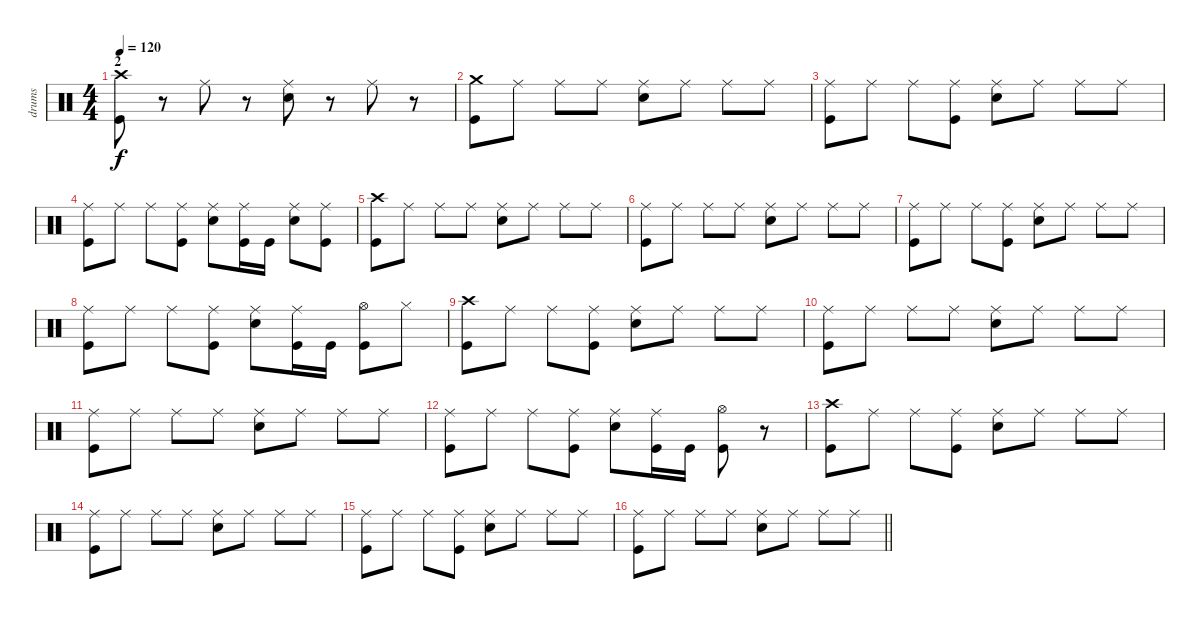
\track ("drums" "drums") {instrument percussion}
\staff {score}
\articulation defaults
\ts (4 4)
\section ("" "2")
\tempo 120
\clef neutral
\ks c
("Crash high (hit)" "Kick (hit)").8{dy f} r.8 "Ride (middle)".8 r.8 ("Ride (middle)" "Electric Snare (hit)").8 r.8 "Ride (middle)".8 r.8 |
("Crash medium (hit)" "Kick (hit)").8 "Ride (middle)".8 "Ride (middle)".8 "Ride (middle)".8 ("Ride (middle)" "Electric Snare (hit)").8 "Ride (middle)".8 "Ride (middle)".8 "Ride (middle)".8 |
("Ride (middle)" "Kick (hit)").8 "Ride (middle)".8 "Ride (middle)".8 ("Ride (middle)" "Kick (hit)").8 ("Ride (middle)" "Electric Snare (hit)").8 "Ride (middle)".8 "Ride (middle)".8 "Ride (middle)".8 |
("Ride (middle)" "Kick (hit)").8 "Ride (middle)".8 "Ride (middle)".8 ("Ride (middle)" "Kick (hit)").8 ("Ride (middle)" "Electric Snare (hit)").8 ("Ride (middle)" "Kick (hit)").16 "Kick (hit)".16 ("Ride (middle)" "Electric Snare (hit)").8 ("Ride (middle)" "Kick (hit)").8 |
("Crash high (hit)" "Kick (hit)").8 "Ride (middle)".8 "Ride (middle)".8 "Ride (middle)".8 ("Ride (middle)" "Electric Snare (hit)").8 "Ride (middle)".8 "Ride (middle)".8 "Ride (middle)".8 |
("Ride (middle)" "Kick (hit)").8 "Ride (middle)".8 "Ride (middle)".8 "Ride (middle)".8 ("Ride (middle)" "Electric Snare (hit)").8 "Ride (middle)".8 "Ride (middle)".8 "Ride (middle)".8 |
("Ride (middle)" "Kick (hit)").8 "Ride (middle)".8 "Ride (middle)".8 ("Ride (middle)" "Kick (hit)").8 ("Ride (middle)" "Electric Snare (hit)").8 "Ride (middle)".8 "Ride (middle)".8 "Ride (middle)".8 |
("Ride (middle)" "Kick (hit)").8 "Ride (middle)".8 "Ride (middle)".8 ("Ride (middle)" "Kick (hit)").8 ("Ride (middle)" "Electric Snare (hit)").8 ("Ride (middle)" "Kick (hit)").16 "Kick (hit)".16 ("Hi-Hat (open)" "Kick (hit)").8 "Hi-Hat (closed)".8 |
("Crash high (hit)" "Kick (hit)").8 "Ride (middle)".8 "Ride (middle)".8 ("Ride (middle)" "Kick (hit)").8 ("Ride (middle)" "Electric Snare (hit)").8 "Ride (middle)".8 "Ride (middle)".8 "Ride (middle)".8 |
("Ride (middle)" "Kick (hit)").8 "Ride (middle)".8 "Ride (middle)".8 "Ride (middle)".8 ("Ride (middle)" "Electric Snare (hit)").8 "Ride (middle)".8 "Ride (middle)".8 "Ride (middle)".8 |
("Ride (middle)" "Kick (hit)").8 "Ride (middle)".8 "Ride (middle)".8 "Ride (middle)".8 ("Ride (middle)" "Electric Snare (hit)").8 "Ride (middle)".8 "Ride (middle)".8 "Ride (middle)".8 |
("Ride (middle)" "Kick (hit)").8 "Ride (middle)".8 "Ride (middle)".8 ("Ride (middle)" "Kick (hit)").8 ("Ride (middle)" "Electric Snare (hit)").8 ("Ride (middle)" "Kick (hit)").16 "Kick (hit)".16 ("Hi-Hat (open)" "Kick (hit)").8 r.8 |
("Crash high (hit)" "Kick (hit)").8 "Ride (middle)".8 "Ride (middle)".8 ("Ride (middle)" "Kick (hit)").8 ("Ride (middle)" "Electric Snare (hit)").8 "Ride (middle)".8 "Ride (middle)".8 "Ride (middle)".8 |
("Ride (middle)" "Kick (hit)").8 "Ride (middle)".8 "Ride (middle)".8 "Ride (middle)".8 ("Ride (middle)" "Electric Snare (hit)").8 "Ride (middle)".8 "Ride (middle)".8 "Ride (middle)".8 |
("Ride (middle)" "Kick (hit)").8 "Ride (middle)".8 "Ride (middle)".8 ("Ride (middle)" "Kick (hit)").8 ("Ride (middle)" "Electric Snare (hit)").8 "Ride (middle)".8 "Ride (middle)".8 "Ride (middle)".8 |
\barLineRight lightlight
("Ride (middle)" "Kick (hit)").8 "Ride (middle)".8 "Ride (middle)".8 "Ride (middle)".8 ("Ride (middle)" "Electric Snare (hit)").8 "Ride (middle)".8 "Ride (middle)".8 "Ride (middle)".8
